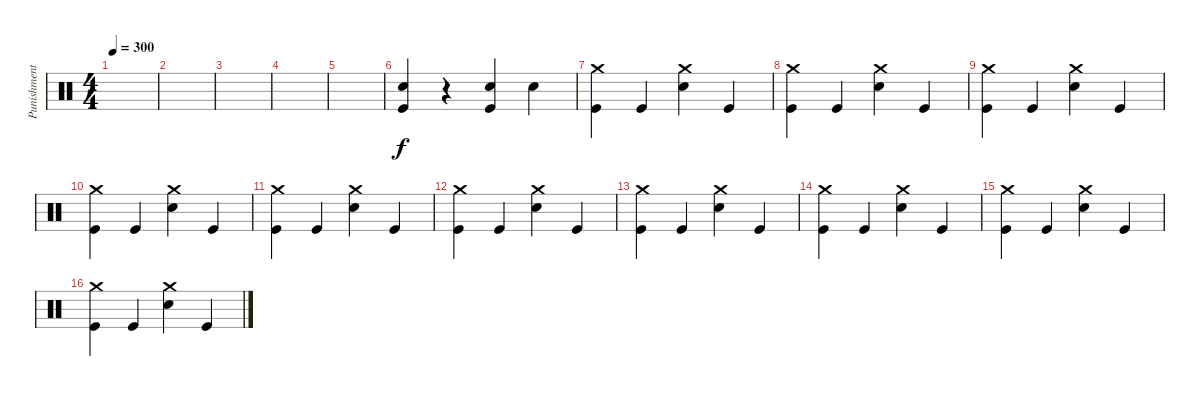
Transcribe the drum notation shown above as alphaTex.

\track ("Punishment" "Punishment") {instrument percussion}
\staff {score}
\articulation defaults
\ts (4 4)
\tempo 300
\clef neutral
\ks c
|
|
|
|
|
("Kick (hit)" "Electric Snare (hit)").4 r.4 ("Kick (hit)" "Electric Snare (hit)").4 "Snare (hit)"{x}.4 |
("Kick (hit)" "Crash medium (hit)").4 "Kick (hit)".4 ("Electric Snare (hit)" "Crash medium (hit)").4 "Kick (hit)".4 |
("Kick (hit)" "Crash medium (hit)").4 "Kick (hit)".4 ("Electric Snare (hit)" "Crash medium (hit)").4 "Kick (hit)".4 |
("Kick (hit)" "Crash medium (hit)").4 "Kick (hit)".4 ("Electric Snare (hit)" "Crash medium (hit)").4 "Kick (hit)".4 |
("Kick (hit)" "Crash medium (hit)").4 "Kick (hit)".4 ("Electric Snare (hit)" "Crash medium (hit)").4 "Kick (hit)".4 |
("Kick (hit)" "Crash medium (hit)").4 "Kick (hit)".4 ("Electric Snare (hit)" "Crash medium (hit)").4 "Kick (hit)".4 |
("Kick (hit)" "Crash medium (hit)").4 "Kick (hit)".4 ("Electric Snare (hit)" "Crash medium (hit)").4 "Kick (hit)".4 |
("Kick (hit)" "Crash medium (hit)").4 "Kick (hit)".4 ("Electric Snare (hit)" "Crash medium (hit)").4 "Kick (hit)".4 |
("Kick (hit)" "Crash medium (hit)").4 "Kick (hit)".4 ("Electric Snare (hit)" "Crash medium (hit)").4 "Kick (hit)".4 |
("Kick (hit)" "Crash medium (hit)").4 "Kick (hit)".4 ("Electric Snare (hit)" "Crash medium (hit)").4 "Kick (hit)".4 |
("Kick (hit)" "Crash medium (hit)").4 "Kick (hit)".4 ("Electric Snare (hit)" "Crash medium (hit)").4 "Kick (hit)".4
